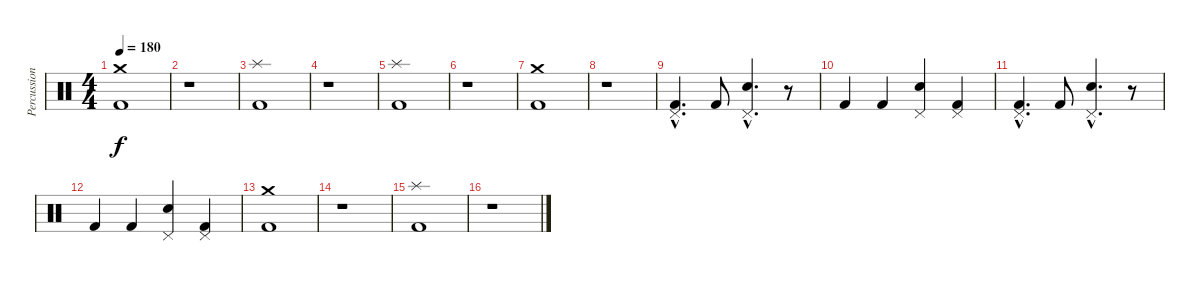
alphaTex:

\track ("Percussion" "Percussion") {instrument percussion}
\staff {score}
\articulation defaults
\ts (4 4)
\tempo 180
\clef neutral
\ks c
("Crash medium (hit)" "Kick (hit) 2").1{dy f} |
r.1 |
("Splash (hit)" "Kick (hit) 2").1 |
r.1 |
("Splash (hit)" "Kick (hit) 2").1 |
r.1 |
("Crash medium (hit)" "Kick (hit) 2").1 |
r.1 |
("Pedal Hi-Hat (hit)"{hac} "Kick (hit) 2"{hac}).4{d} "Kick (hit) 2".8 ("Pedal Hi-Hat (hit)"{hac} "Electric Snare (hit)"{hac}).4{d} r.8 |
"Kick (hit) 2".4 "Kick (hit) 2".4 ("Pedal Hi-Hat (hit)" "Electric Snare (hit)").4 ("Pedal Hi-Hat (hit)" "Kick (hit) 2").4 |
("Pedal Hi-Hat (hit)"{hac} "Kick (hit) 2"{hac}).4{d} "Kick (hit) 2".8 ("Pedal Hi-Hat (hit)"{hac} "Electric Snare (hit)"{hac}).4{d} r.8 |
"Kick (hit) 2".4 "Kick (hit) 2".4 ("Pedal Hi-Hat (hit)" "Electric Snare (hit)").4 ("Pedal Hi-Hat (hit)" "Kick (hit) 2").4 |
("Crash medium (hit)" "Kick (hit) 2").1 |
r.1 |
("Splash (hit)" "Kick (hit) 2").1 |
r.1
